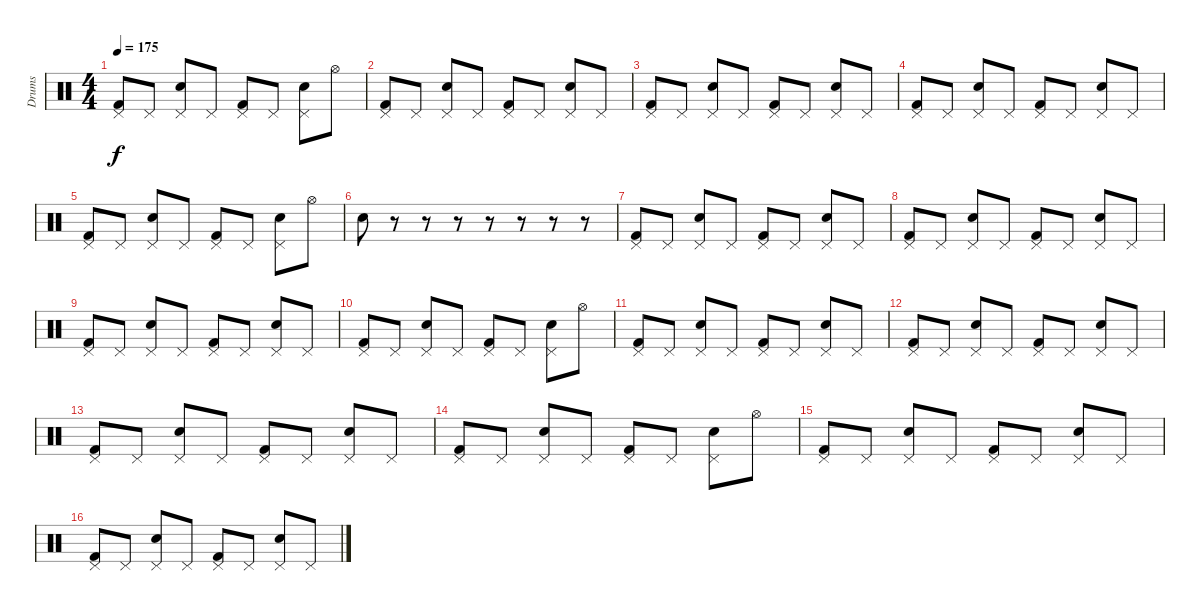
\track ("Drums" "Drums") {instrument percussion}
\staff {score}
\articulation defaults
\ts (4 4)
\tempo 175
\clef neutral
\ks c
("Pedal Hi-Hat (hit)" "Kick (hit) 2").8{dy f} "Pedal Hi-Hat (hit)".8 ("Pedal Hi-Hat (hit)" "Snare (hit) 2").8 "Pedal Hi-Hat (hit)".8 ("Pedal Hi-Hat (hit)" "Kick (hit) 2").8 "Pedal Hi-Hat (hit)".8 ("Pedal Hi-Hat (hit)" "Snare (hit) 2").8 "Hi-Hat (open)".8 |
("Pedal Hi-Hat (hit)" "Kick (hit) 2").8 "Pedal Hi-Hat (hit)".8 ("Pedal Hi-Hat (hit)" "Snare (hit) 2").8 "Pedal Hi-Hat (hit)".8 ("Pedal Hi-Hat (hit)" "Kick (hit) 2").8 "Pedal Hi-Hat (hit)".8 ("Pedal Hi-Hat (hit)" "Snare (hit) 2").8 "Pedal Hi-Hat (hit)".8 |
("Pedal Hi-Hat (hit)" "Kick (hit) 2").8 "Pedal Hi-Hat (hit)".8 ("Pedal Hi-Hat (hit)" "Snare (hit) 2").8 "Pedal Hi-Hat (hit)".8 ("Pedal Hi-Hat (hit)" "Kick (hit) 2").8 "Pedal Hi-Hat (hit)".8 ("Pedal Hi-Hat (hit)" "Snare (hit) 2").8 "Pedal Hi-Hat (hit)".8 |
("Pedal Hi-Hat (hit)" "Kick (hit) 2").8 "Pedal Hi-Hat (hit)".8 ("Pedal Hi-Hat (hit)" "Snare (hit) 2").8 "Pedal Hi-Hat (hit)".8 ("Pedal Hi-Hat (hit)" "Kick (hit) 2").8 "Pedal Hi-Hat (hit)".8 ("Pedal Hi-Hat (hit)" "Snare (hit) 2").8 "Pedal Hi-Hat (hit)".8 |
("Pedal Hi-Hat (hit)" "Kick (hit) 2").8 "Pedal Hi-Hat (hit)".8 ("Pedal Hi-Hat (hit)" "Snare (hit) 2").8 "Pedal Hi-Hat (hit)".8 ("Pedal Hi-Hat (hit)" "Kick (hit) 2").8 "Pedal Hi-Hat (hit)".8 ("Pedal Hi-Hat (hit)" "Snare (hit) 2").8 "Hi-Hat (open)".8 |
"Snare (hit) 2".8 r.8 r.8 r.8 r.8 r.8 r.8 r.8 |
("Pedal Hi-Hat (hit)" "Kick (hit) 2").8 "Pedal Hi-Hat (hit)".8 ("Pedal Hi-Hat (hit)" "Snare (hit) 2").8 "Pedal Hi-Hat (hit)".8 ("Pedal Hi-Hat (hit)" "Kick (hit) 2").8 "Pedal Hi-Hat (hit)".8 ("Pedal Hi-Hat (hit)" "Snare (hit) 2").8 "Pedal Hi-Hat (hit)".8 |
("Pedal Hi-Hat (hit)" "Kick (hit) 2").8 "Pedal Hi-Hat (hit)".8 ("Pedal Hi-Hat (hit)" "Snare (hit) 2").8 "Pedal Hi-Hat (hit)".8 ("Pedal Hi-Hat (hit)" "Kick (hit) 2").8 "Pedal Hi-Hat (hit)".8 ("Pedal Hi-Hat (hit)" "Snare (hit) 2").8 "Pedal Hi-Hat (hit)".8 |
("Pedal Hi-Hat (hit)" "Kick (hit) 2").8 "Pedal Hi-Hat (hit)".8 ("Pedal Hi-Hat (hit)" "Snare (hit) 2").8 "Pedal Hi-Hat (hit)".8 ("Pedal Hi-Hat (hit)" "Kick (hit) 2").8 "Pedal Hi-Hat (hit)".8 ("Pedal Hi-Hat (hit)" "Snare (hit) 2").8 "Pedal Hi-Hat (hit)".8 |
("Pedal Hi-Hat (hit)" "Kick (hit) 2").8 "Pedal Hi-Hat (hit)".8 ("Pedal Hi-Hat (hit)" "Snare (hit) 2").8 "Pedal Hi-Hat (hit)".8 ("Pedal Hi-Hat (hit)" "Kick (hit) 2").8 "Pedal Hi-Hat (hit)".8 ("Pedal Hi-Hat (hit)" "Snare (hit) 2").8 "Hi-Hat (open)".8 |
("Pedal Hi-Hat (hit)" "Kick (hit) 2").8 "Pedal Hi-Hat (hit)".8 ("Pedal Hi-Hat (hit)" "Snare (hit) 2").8 "Pedal Hi-Hat (hit)".8 ("Pedal Hi-Hat (hit)" "Kick (hit) 2").8 "Pedal Hi-Hat (hit)".8 ("Pedal Hi-Hat (hit)" "Snare (hit) 2").8 "Pedal Hi-Hat (hit)".8 |
("Pedal Hi-Hat (hit)" "Kick (hit) 2").8 "Pedal Hi-Hat (hit)".8 ("Pedal Hi-Hat (hit)" "Snare (hit) 2").8 "Pedal Hi-Hat (hit)".8 ("Pedal Hi-Hat (hit)" "Kick (hit) 2").8 "Pedal Hi-Hat (hit)".8 ("Pedal Hi-Hat (hit)" "Snare (hit) 2").8 "Pedal Hi-Hat (hit)".8 |
("Pedal Hi-Hat (hit)" "Kick (hit) 2").8 "Pedal Hi-Hat (hit)".8 ("Pedal Hi-Hat (hit)" "Snare (hit) 2").8 "Pedal Hi-Hat (hit)".8 ("Pedal Hi-Hat (hit)" "Kick (hit) 2").8 "Pedal Hi-Hat (hit)".8 ("Pedal Hi-Hat (hit)" "Snare (hit) 2").8 "Pedal Hi-Hat (hit)".8 |
("Pedal Hi-Hat (hit)" "Kick (hit) 2").8 "Pedal Hi-Hat (hit)".8 ("Pedal Hi-Hat (hit)" "Snare (hit) 2").8 "Pedal Hi-Hat (hit)".8 ("Pedal Hi-Hat (hit)" "Kick (hit) 2").8 "Pedal Hi-Hat (hit)".8 ("Pedal Hi-Hat (hit)" "Snare (hit) 2").8 "Hi-Hat (open)".8 |
("Pedal Hi-Hat (hit)" "Kick (hit) 2").8 "Pedal Hi-Hat (hit)".8 ("Pedal Hi-Hat (hit)" "Snare (hit) 2").8 "Pedal Hi-Hat (hit)".8 ("Pedal Hi-Hat (hit)" "Kick (hit) 2").8 "Pedal Hi-Hat (hit)".8 ("Pedal Hi-Hat (hit)" "Snare (hit) 2").8 "Pedal Hi-Hat (hit)".8 |
("Pedal Hi-Hat (hit)" "Kick (hit) 2").8 "Pedal Hi-Hat (hit)".8 ("Pedal Hi-Hat (hit)" "Snare (hit) 2").8 "Pedal Hi-Hat (hit)".8 ("Pedal Hi-Hat (hit)" "Kick (hit) 2").8 "Pedal Hi-Hat (hit)".8 ("Pedal Hi-Hat (hit)" "Snare (hit) 2").8 "Pedal Hi-Hat (hit)".8
